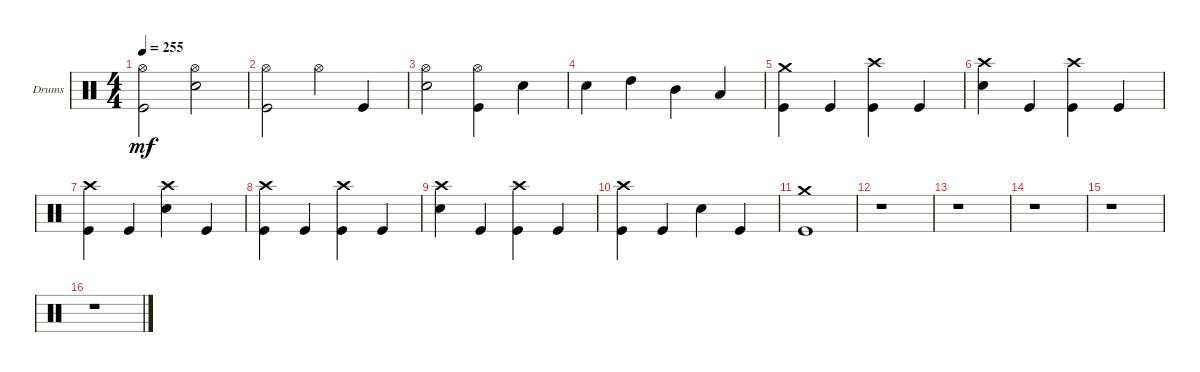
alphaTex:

\bracketExtendMode groupsimilarinstruments
\firstSystemTrackNameOrientation horizontal
\otherSystemsTrackNameOrientation horizontal
\track ("Drums" "Drums") {instrument percussion}
\staff {score}
\articulation defaults
\ts (4 4)
\tempo 255
\clef neutral
\ks c
("Kick (hit)" "Hi-Hat (open)").2{dy mf} ("Snare (hit) 2" "Hi-Hat (open)").2 |
("Kick (hit)" "Hi-Hat (open)").2 "Hi-Hat (open)".4 "Kick (hit)".4 |
("Snare (hit) 2" "Hi-Hat (open)").2 ("Kick (hit)" "Hi-Hat (open)").4 "Snare (hit) 2".4 |
"Snare (hit) 2".4 "High Tom (hit)".4 "Mid Tom (hit)".4 "Low Tom (hit)".4 |
("Kick (hit)" "Crash medium (hit)").4 "Kick (hit)".4 ("Kick (hit)" "Crash high (hit)").4 "Kick (hit)".4 |
("Snare (hit) 2" "Crash high (hit)").4 "Kick (hit)".4 ("Kick (hit)" "Crash high (hit)").4 "Kick (hit)".4 |
("Kick (hit)" "Crash high (hit)").4 "Kick (hit)".4 ("Snare (hit) 2" "Crash high (hit)").4 "Kick (hit)".4 |
("Kick (hit)" "Crash high (hit)").4 "Kick (hit)".4 ("Kick (hit)" "Crash high (hit)").4 "Kick (hit)".4 |
("Snare (hit) 2" "Crash high (hit)").4 "Kick (hit)".4 ("Kick (hit)" "Crash high (hit)").4 "Kick (hit)".4 |
("Kick (hit)" "Crash high (hit)").4 "Kick (hit)".4 "Snare (hit) 2".4 "Kick (hit)".4 |
("Kick (hit)" "Crash medium (hit)").1 |
r.1 |
r.1 |
r.1 |
r.1 |
r.1
